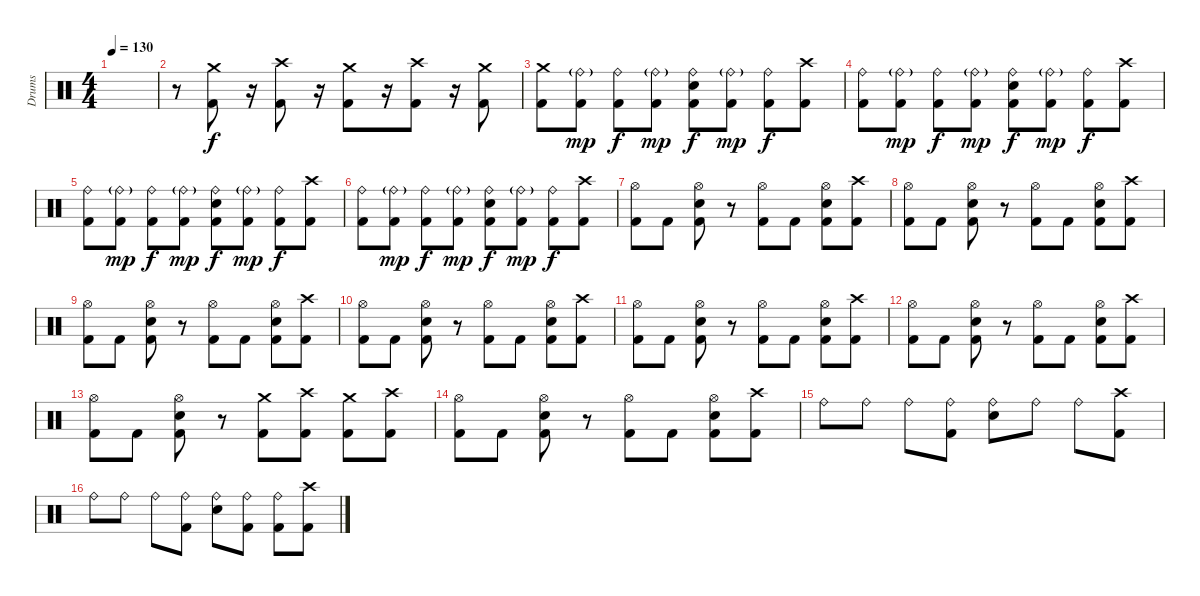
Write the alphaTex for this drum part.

\track ("Drums" "Drums") {instrument percussion}
\staff {score}
\articulation defaults
\ts (4 4)
\tempo 130
\clef neutral
\ks c
|
r.8 ("Crash medium (hit)" "Kick (hit) 2").8 r.16 ("Crash high (hit)" "Kick (hit) 2").8 r.16 ("Crash medium (hit)" "Kick (hit) 2").8 r.16 ("Crash high (hit)" "Kick (hit) 2").8 r.16 ("Crash medium (hit)" "Kick (hit) 2").8 |
("Crash medium (hit)" "Kick (hit) 2").8 ("Ride (bell)"{g} "Kick (hit) 2").8{dy mp} ("Ride (bell)" "Kick (hit) 2").8{dy f} ("Ride (bell)"{g} "Kick (hit) 2").8{dy mp} ("Ride (bell)" "Electric Snare (hit)" "Kick (hit) 2").8{dy f} ("Ride (bell)"{g} "Kick (hit) 2").8{dy mp} ("Ride (bell)" "Kick (hit) 2").8{dy f} ("Crash high (hit)" "Kick (hit) 2").8 |
("Ride (bell)" "Kick (hit) 2").8 ("Ride (bell)"{g} "Kick (hit) 2").8{dy mp} ("Ride (bell)" "Kick (hit) 2").8{dy f} ("Ride (bell)"{g} "Kick (hit) 2").8{dy mp} ("Ride (bell)" "Electric Snare (hit)" "Kick (hit) 2").8{dy f} ("Ride (bell)"{g} "Kick (hit) 2").8{dy mp} ("Ride (bell)" "Kick (hit) 2").8{dy f} ("Crash high (hit)" "Kick (hit) 2").8 |
("Ride (bell)" "Kick (hit) 2").8 ("Ride (bell)"{g} "Kick (hit) 2").8{dy mp} ("Ride (bell)" "Kick (hit) 2").8{dy f} ("Ride (bell)"{g} "Kick (hit) 2").8{dy mp} ("Ride (bell)" "Electric Snare (hit)" "Kick (hit) 2").8{dy f} ("Ride (bell)"{g} "Kick (hit) 2").8{dy mp} ("Ride (bell)" "Kick (hit) 2").8{dy f} ("Crash high (hit)" "Kick (hit) 2").8 |
("Ride (bell)" "Kick (hit) 2").8 ("Ride (bell)"{g} "Kick (hit) 2").8{dy mp} ("Ride (bell)" "Kick (hit) 2").8{dy f} ("Ride (bell)"{g} "Kick (hit) 2").8{dy mp} ("Ride (bell)" "Electric Snare (hit)" "Kick (hit) 2").8{dy f} ("Ride (bell)"{g} "Kick (hit) 2").8{dy mp} ("Ride (bell)" "Kick (hit) 2").8{dy f} ("Crash high (hit)" "Kick (hit) 2").8 |
("Hi-Hat (open)" "Kick (hit) 2").8 "Kick (hit) 2".8 ("Hi-Hat (open)" "Electric Snare (hit)" "Kick (hit) 2").8 r.8 ("Hi-Hat (open)" "Kick (hit) 2").8 "Kick (hit) 2".8 ("Hi-Hat (open)" "Electric Snare (hit)" "Kick (hit) 2").8 ("Crash high (hit)" "Kick (hit) 2").8 |
("Hi-Hat (open)" "Kick (hit) 2").8 "Kick (hit) 2".8 ("Hi-Hat (open)" "Electric Snare (hit)" "Kick (hit) 2").8 r.8 ("Hi-Hat (open)" "Kick (hit) 2").8 "Kick (hit) 2".8 ("Hi-Hat (open)" "Electric Snare (hit)" "Kick (hit) 2").8 ("Crash high (hit)" "Kick (hit) 2").8 |
("Hi-Hat (open)" "Kick (hit) 2").8 "Kick (hit) 2".8 ("Hi-Hat (open)" "Electric Snare (hit)" "Kick (hit) 2").8 r.8 ("Hi-Hat (open)" "Kick (hit) 2").8 "Kick (hit) 2".8 ("Hi-Hat (open)" "Electric Snare (hit)" "Kick (hit) 2").8 ("Crash high (hit)" "Kick (hit) 2").8 |
("Hi-Hat (open)" "Kick (hit) 2").8 "Kick (hit) 2".8 ("Hi-Hat (open)" "Electric Snare (hit)" "Kick (hit) 2").8 r.8 ("Hi-Hat (open)" "Kick (hit) 2").8 "Kick (hit) 2".8 ("Hi-Hat (open)" "Electric Snare (hit)" "Kick (hit) 2").8 ("Crash high (hit)" "Kick (hit) 2").8 |
("Hi-Hat (open)" "Kick (hit) 2").8 "Kick (hit) 2".8 ("Hi-Hat (open)" "Electric Snare (hit)" "Kick (hit) 2").8 r.8 ("Hi-Hat (open)" "Kick (hit) 2").8 "Kick (hit) 2".8 ("Hi-Hat (open)" "Electric Snare (hit)" "Kick (hit) 2").8 ("Crash high (hit)" "Kick (hit) 2").8 |
("Hi-Hat (open)" "Kick (hit) 2").8 "Kick (hit) 2".8 ("Hi-Hat (open)" "Electric Snare (hit)" "Kick (hit) 2").8 r.8 ("Hi-Hat (open)" "Kick (hit) 2").8 "Kick (hit) 2".8 ("Hi-Hat (open)" "Electric Snare (hit)" "Kick (hit) 2").8 ("Crash high (hit)" "Kick (hit) 2").8 |
("Hi-Hat (open)" "Kick (hit) 2").8 "Kick (hit) 2".8 ("Hi-Hat (open)" "Electric Snare (hit)" "Kick (hit) 2").8 r.8 ("Crash medium (hit)" "Kick (hit) 2").8 ("Crash high (hit)" "Kick (hit) 2").8 ("Crash medium (hit)" "Kick (hit) 2").8 ("Crash high (hit)" "Kick (hit) 2").8 |
("Hi-Hat (open)" "Kick (hit) 2").8 "Kick (hit) 2".8 ("Hi-Hat (open)" "Electric Snare (hit)" "Kick (hit) 2").8 r.8 ("Hi-Hat (open)" "Kick (hit) 2").8 "Kick (hit) 2".8 ("Hi-Hat (open)" "Electric Snare (hit)" "Kick (hit) 2").8 ("Crash high (hit)" "Kick (hit) 2").8 |
"Ride (bell)".8 "Ride (bell)".8 "Ride (bell)".8 ("Ride (bell)" "Kick (hit) 2").8 ("Ride (bell)" "Electric Snare (hit)").8 "Ride (bell)".8 "Ride (bell)".8 ("Crash high (hit)" "Kick (hit) 2").8 |
"Ride (bell)".8 "Ride (bell)".8 "Ride (bell)".8 ("Ride (bell)" "Kick (hit) 2").8 ("Ride (bell)" "Electric Snare (hit)").8 ("Ride (bell)" "Kick (hit) 2").8 ("Ride (bell)" "Kick (hit) 2").8 ("Crash high (hit)" "Kick (hit) 2").8
